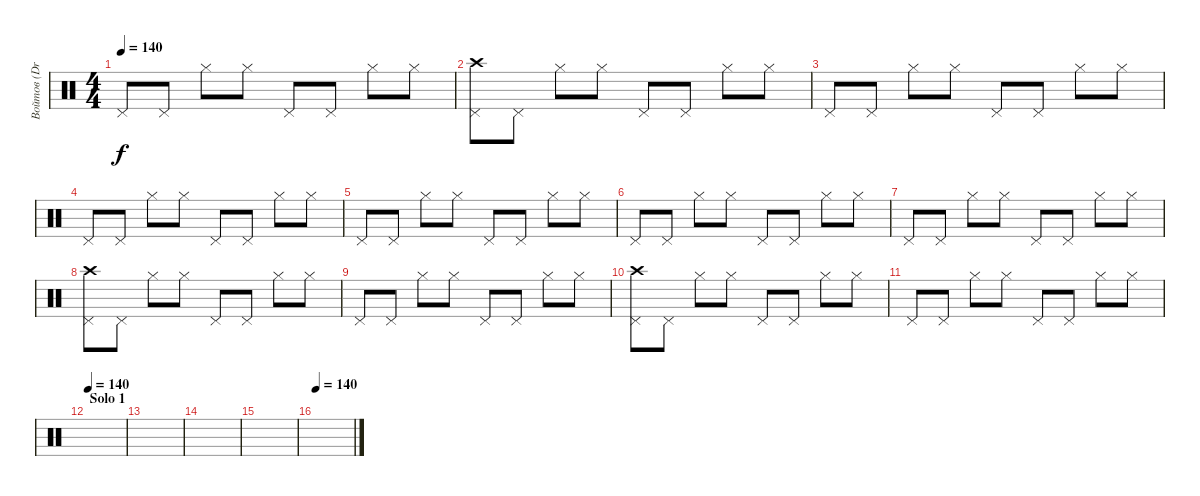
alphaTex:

\track ("Войтов (Drums)" "Войтов (Dr") {instrument percussion}
\staff {score}
\articulation defaults
\ts (4 4)
\tempo 140
\clef neutral
\ks c "Pedal Hi-Hat (hit)".8{dy f} "Pedal Hi-Hat (hit)".8 "Hi-Hat (closed)".8 "Hi-Hat (closed)".8 "Pedal Hi-Hat (hit)".8 "Pedal Hi-Hat (hit)".8 "Hi-Hat (closed)".8 "Hi-Hat (closed)".8
|
("Pedal Hi-Hat (hit)" "Crash high (hit)").8 "Pedal Hi-Hat (hit)".8 "Hi-Hat (closed)".8 "Hi-Hat (closed)".8 "Pedal Hi-Hat (hit)".8 "Pedal Hi-Hat (hit)".8 "Hi-Hat (closed)".8 "Hi-Hat (closed)".8 |
"Pedal Hi-Hat (hit)".8 "Pedal Hi-Hat (hit)".8 "Hi-Hat (closed)".8 "Hi-Hat (closed)".8 "Pedal Hi-Hat (hit)".8 "Pedal Hi-Hat (hit)".8 "Hi-Hat (closed)".8 "Hi-Hat (closed)".8 |
"Pedal Hi-Hat (hit)".8 "Pedal Hi-Hat (hit)".8 "Hi-Hat (closed)".8 "Hi-Hat (closed)".8 "Pedal Hi-Hat (hit)".8 "Pedal Hi-Hat (hit)".8 "Hi-Hat (closed)".8 "Hi-Hat (closed)".8 |
"Pedal Hi-Hat (hit)".8 "Pedal Hi-Hat (hit)".8 "Hi-Hat (closed)".8 "Hi-Hat (closed)".8 "Pedal Hi-Hat (hit)".8 "Pedal Hi-Hat (hit)".8 "Hi-Hat (closed)".8 "Hi-Hat (closed)".8 |
"Pedal Hi-Hat (hit)".8 "Pedal Hi-Hat (hit)".8 "Hi-Hat (closed)".8 "Hi-Hat (closed)".8 "Pedal Hi-Hat (hit)".8 "Pedal Hi-Hat (hit)".8 "Hi-Hat (closed)".8 "Hi-Hat (closed)".8 |
"Pedal Hi-Hat (hit)".8 "Pedal Hi-Hat (hit)".8 "Hi-Hat (closed)".8 "Hi-Hat (closed)".8 "Pedal Hi-Hat (hit)".8 "Pedal Hi-Hat (hit)".8 "Hi-Hat (closed)".8 "Hi-Hat (closed)".8 |
("Pedal Hi-Hat (hit)" "Crash high (hit)").8 "Pedal Hi-Hat (hit)".8 "Hi-Hat (closed)".8 "Hi-Hat (closed)".8 "Pedal Hi-Hat (hit)".8 "Pedal Hi-Hat (hit)".8 "Hi-Hat (closed)".8 "Hi-Hat (closed)".8 |
"Pedal Hi-Hat (hit)".8 "Pedal Hi-Hat (hit)".8 "Hi-Hat (closed)".8 "Hi-Hat (closed)".8 "Pedal Hi-Hat (hit)".8 "Pedal Hi-Hat (hit)".8 "Hi-Hat (closed)".8 "Hi-Hat (closed)".8 |
("Pedal Hi-Hat (hit)" "Crash high (hit)").8 "Pedal Hi-Hat (hit)".8 "Hi-Hat (closed)".8 "Hi-Hat (closed)".8 "Pedal Hi-Hat (hit)".8 "Pedal Hi-Hat (hit)".8 "Hi-Hat (closed)".8 "Hi-Hat (closed)".8 |
"Pedal Hi-Hat (hit)".8 "Pedal Hi-Hat (hit)".8 "Hi-Hat (closed)".8 "Hi-Hat (closed)".8 "Pedal Hi-Hat (hit)".8 "Pedal Hi-Hat (hit)".8 "Hi-Hat (closed)".8 "Hi-Hat (closed)".8 |
\section ("" "Solo 1")
\tempo 140
|
|
|
|
\tempo 140
